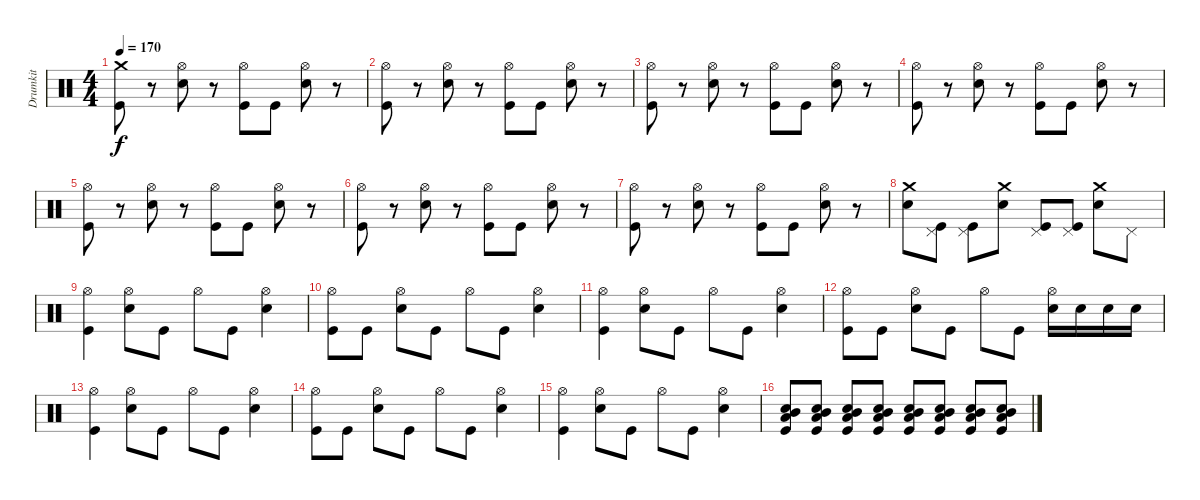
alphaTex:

\track ("Drumkit" "Drumkit") {instrument percussion}
\staff {score}
\articulation defaults
\ts (4 4)
\tempo 170
\clef neutral
\ks c
("Crash medium (hit)" "Kick (hit)").8{dy f} r.8 ("Hi-Hat (open)" "Snare (hit) 2").8 r.8 ("Hi-Hat (open)" "Kick (hit)").8 "Kick (hit)".8 ("Hi-Hat (open)" "Snare (hit) 2").8 r.8 |
("Hi-Hat (open)" "Kick (hit)").8 r.8 ("Hi-Hat (open)" "Snare (hit) 2").8 r.8 ("Hi-Hat (open)" "Kick (hit)").8 "Kick (hit)".8 ("Hi-Hat (open)" "Snare (hit) 2").8 r.8 |
("Hi-Hat (open)" "Kick (hit)").8 r.8 ("Hi-Hat (open)" "Snare (hit) 2").8 r.8 ("Hi-Hat (open)" "Kick (hit)").8 "Kick (hit)".8 ("Hi-Hat (open)" "Snare (hit) 2").8 r.8 |
("Hi-Hat (open)" "Kick (hit)").8 r.8 ("Hi-Hat (open)" "Snare (hit) 2").8 r.8 ("Hi-Hat (open)" "Kick (hit)").8 "Kick (hit)".8 ("Hi-Hat (open)" "Snare (hit) 2").8 r.8 |
("Hi-Hat (open)" "Kick (hit)").8 r.8 ("Hi-Hat (open)" "Snare (hit) 2").8 r.8 ("Hi-Hat (open)" "Kick (hit)").8 "Kick (hit)".8 ("Hi-Hat (open)" "Snare (hit) 2").8 r.8 |
("Hi-Hat (open)" "Kick (hit)").8 r.8 ("Hi-Hat (open)" "Snare (hit) 2").8 r.8 ("Hi-Hat (open)" "Kick (hit)").8 "Kick (hit)".8 ("Hi-Hat (open)" "Snare (hit) 2").8 r.8 |
("Hi-Hat (open)" "Kick (hit)").8 r.8 ("Hi-Hat (open)" "Snare (hit) 2").8 r.8 ("Hi-Hat (open)" "Kick (hit)").8 "Kick (hit)".8 ("Hi-Hat (open)" "Snare (hit) 2").8 r.8 |
("Crash medium (hit)" "Snare (hit) 2").8 ("Pedal Hi-Hat (hit)" "Kick (hit)").8 ("Pedal Hi-Hat (hit)" "Kick (hit)").8 ("Crash medium (hit)" "Snare (hit) 2").8 ("Pedal Hi-Hat (hit)" "Kick (hit)").8 ("Pedal Hi-Hat (hit)" "Kick (hit)").8 ("Crash medium (hit)" "Snare (hit) 2").8 "Pedal Hi-Hat (hit)".8 |
("Kick (hit)" "Hi-Hat (open)").4 ("Snare (hit) 2" "Hi-Hat (open)").8 "Kick (hit)".8 "Hi-Hat (open)".8 "Kick (hit)".8 ("Snare (hit) 2" "Hi-Hat (open)").4 |
("Kick (hit)" "Hi-Hat (open)").8 "Kick (hit)".8 ("Snare (hit) 2" "Hi-Hat (open)").8 "Kick (hit)".8 "Hi-Hat (open)".8 "Kick (hit)".8 ("Snare (hit) 2" "Hi-Hat (open)").4 |
("Kick (hit)" "Hi-Hat (open)").4 ("Snare (hit) 2" "Hi-Hat (open)").8 "Kick (hit)".8 "Hi-Hat (open)".8 "Kick (hit)".8 ("Snare (hit) 2" "Hi-Hat (open)").4 |
("Kick (hit)" "Hi-Hat (open)").8 "Kick (hit)".8 ("Snare (hit) 2" "Hi-Hat (open)").8 "Kick (hit)".8 "Hi-Hat (open)".8 "Kick (hit)".8 ("Snare (hit) 2" "Hi-Hat (open)").16 "Snare (hit) 2".16 "Snare (hit) 2".16 "Snare (hit) 2".16 |
("Kick (hit)" "Hi-Hat (open)").4 ("Snare (hit) 2" "Hi-Hat (open)").8 "Kick (hit)".8 "Hi-Hat (open)".8 "Kick (hit)".8 ("Snare (hit) 2" "Hi-Hat (open)").4 |
("Kick (hit)" "Hi-Hat (open)").8 "Kick (hit)".8 ("Snare (hit) 2" "Hi-Hat (open)").8 "Kick (hit)".8 "Hi-Hat (open)".8 "Kick (hit)".8 ("Snare (hit) 2" "Hi-Hat (open)").4 |
("Kick (hit)" "Hi-Hat (open)").4 ("Snare (hit) 2" "Hi-Hat (open)").8 "Kick (hit)".8 "Hi-Hat (open)".8 "Kick (hit)".8 ("Snare (hit) 2" "Hi-Hat (open)").4 |
("Kick (hit)" "Low Tom (hit)" "Mid Tom (hit)" "Snare (hit) 2").8 ("Kick (hit)" "Low Tom (hit)" "Mid Tom (hit)" "Snare (hit) 2").8 ("Kick (hit)" "Low Tom (hit)" "Mid Tom (hit)" "Snare (hit) 2").8 ("Kick (hit)" "Low Tom (hit)" "Mid Tom (hit)" "Snare (hit) 2").8 ("Kick (hit)" "Low Tom (hit)" "Mid Tom (hit)" "Snare (hit) 2").8 ("Kick (hit)" "Low Tom (hit)" "Mid Tom (hit)" "Snare (hit) 2").8 ("Kick (hit)" "Low Tom (hit)" "Mid Tom (hit)" "Snare (hit) 2").8 ("Kick (hit)" "Low Tom (hit)" "Mid Tom (hit)" "Snare (hit) 2").8
